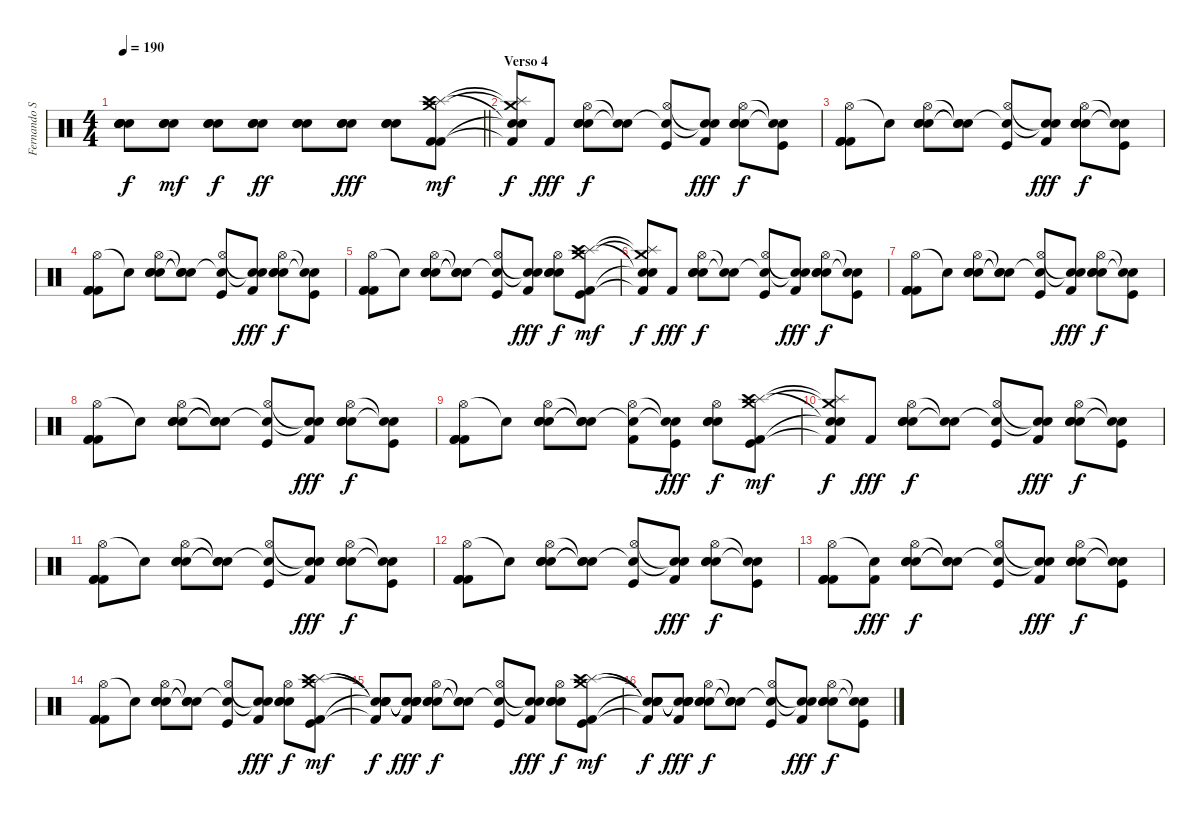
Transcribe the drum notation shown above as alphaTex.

\track ("Fernando Scarcella" "Fernando S") {instrument percussion}
\staff {score}
\articulation defaults
\ts (4 4)
\tempo 190
\clef neutral
\barLineRight lightlight
\ks c
("Snare (hit)"{t} "Snare (hit)"{t} "Snare (hit)"{t} "Snare (hit)"{t} "Snare (hit)"{t}).8{dy f} ("Electric Snare (hit)" "Electric Snare (hit)" "Electric Snare (hit)").8{dy mf} ("Electric Snare (hit)" "Electric Snare (hit)" "Electric Snare (hit)").8{dy f} ("Electric Snare (hit)" "Electric Snare (hit)" "Electric Snare (hit)").8{dy ff} ("Electric Snare (hit)" "Electric Snare (hit)" "Electric Snare (hit)").8 ("Electric Snare (hit)" "Electric Snare (hit)" "Electric Snare (hit)").8{dy fff} ("Electric Snare (hit)" "Electric Snare (hit)" "Electric Snare (hit)").8 ("Crash medium (hit)" "Splash (hit)" "Crash high (hit)" "Kick (hit) 2" "Kick (hit) 2").8{dy mf} |
\section ("" "Verso 4")
("Crash medium (hit)"{t} "Splash (hit)"{t} "Snare (hit)"{t} "Snare (hit)"{t} "Kick (hit) 2"{t}).8{dy f} "Kick (hit) 2".8{dy fff} ("Hi-Hat (open)" "Electric Snare (hit)" "Electric Snare (hit)" "Electric Snare (hit)").8{dy f} ("Snare (hit)"{t} "Snare (hit)"{t}).8 ("Hi-Hat (open)" "Snare (hit)"{t} "Kick (hit)").8 ("Snare (hit)"{t} "Snare (hit)"{t} "Kick (hit) 2").8{dy fff} ("Hi-Hat (open)" "Electric Snare (hit)" "Electric Snare (hit)" "Electric Snare (hit)").8{dy f} ("Snare (hit)"{t} "Snare (hit)"{t} "Kick (hit)").8 |
("Hi-Hat (open)" "Kick (hit) 2" "Kick (hit) 2" "Kick (hit) 2").8 "Snare (hit)"{t}.8 ("Hi-Hat (open)" "Electric Snare (hit)" "Electric Snare (hit)" "Electric Snare (hit)").8 ("Snare (hit)"{t} "Snare (hit)"{t} "Snare (hit)"{t}).8 ("Hi-Hat (open)" "Snare (hit)"{t} "Kick (hit)").8 ("Snare (hit)"{t} "Snare (hit)"{t} "Kick (hit) 2").8{dy fff} ("Hi-Hat (open)" "Electric Snare (hit)" "Electric Snare (hit)" "Electric Snare (hit)").8{dy f} ("Snare (hit)"{t} "Snare (hit)"{t} "Kick (hit)").8 |
("Hi-Hat (open)" "Kick (hit) 2" "Kick (hit) 2" "Kick (hit) 2").8 "Snare (hit)"{t}.8 ("Hi-Hat (open)" "Electric Snare (hit)" "Electric Snare (hit)" "Electric Snare (hit)").8 ("Snare (hit)"{t} "Snare (hit)"{t} "Snare (hit)"{t}).8 ("Hi-Hat (open)" "Snare (hit)"{t} "Kick (hit)").8 ("Snare (hit)"{t} "Snare (hit)"{t} "Kick (hit) 2").8{dy fff} ("Hi-Hat (open)" "Electric Snare (hit)" "Electric Snare (hit)" "Electric Snare (hit)").8{dy f} ("Snare (hit)"{t} "Snare (hit)"{t} "Kick (hit)").8 |
("Hi-Hat (open)" "Kick (hit) 2" "Kick (hit) 2" "Kick (hit) 2").8 "Snare (hit)"{t}.8 ("Hi-Hat (open)" "Electric Snare (hit)" "Electric Snare (hit)" "Electric Snare (hit)").8 ("Snare (hit)"{t} "Snare (hit)"{t} "Snare (hit)"{t}).8 ("Hi-Hat (open)" "Snare (hit)"{t} "Kick (hit)").8 ("Snare (hit)"{t} "Snare (hit)"{t} "Kick (hit) 2").8{dy fff} ("Hi-Hat (open)" "Electric Snare (hit)" "Electric Snare (hit)" "Electric Snare (hit)").8{dy f} ("Crash medium (hit)" "Splash (hit)" "Crash high (hit)" "Kick (hit) 2" "Kick (hit)").8{dy mf} |
("Crash medium (hit)"{t} "Splash (hit)"{t} "Snare (hit)"{t} "Snare (hit)"{t} "Kick (hit) 2"{t}).8{dy f} "Kick (hit) 2".8{dy fff} ("Hi-Hat (open)" "Electric Snare (hit)" "Electric Snare (hit)" "Electric Snare (hit)").8{dy f} ("Snare (hit)"{t} "Snare (hit)"{t}).8 ("Hi-Hat (open)" "Snare (hit)"{t} "Kick (hit)").8 ("Snare (hit)"{t} "Snare (hit)"{t} "Kick (hit) 2").8{dy fff} ("Hi-Hat (open)" "Electric Snare (hit)" "Electric Snare (hit)" "Electric Snare (hit)").8{dy f} ("Snare (hit)"{t} "Snare (hit)"{t} "Kick (hit)").8 |
("Hi-Hat (open)" "Kick (hit) 2" "Kick (hit) 2" "Kick (hit) 2").8 "Snare (hit)"{t}.8 ("Hi-Hat (open)" "Electric Snare (hit)" "Electric Snare (hit)" "Electric Snare (hit)").8 ("Snare (hit)"{t} "Snare (hit)"{t} "Snare (hit)"{t}).8 ("Hi-Hat (open)" "Snare (hit)"{t} "Kick (hit)").8 ("Snare (hit)"{t} "Snare (hit)"{t} "Kick (hit) 2").8{dy fff} ("Hi-Hat (open)" "Electric Snare (hit)" "Electric Snare (hit)" "Electric Snare (hit)").8{dy f} ("Snare (hit)"{t} "Snare (hit)"{t} "Kick (hit)").8 |
("Hi-Hat (open)" "Kick (hit) 2" "Kick (hit) 2" "Kick (hit) 2").8 "Snare (hit)"{t}.8 ("Hi-Hat (open)" "Electric Snare (hit)" "Electric Snare (hit)" "Electric Snare (hit)").8 ("Snare (hit)"{t} "Snare (hit)"{t} "Snare (hit)"{t}).8 ("Hi-Hat (open)" "Snare (hit)"{t} "Kick (hit)").8 ("Snare (hit)"{t} "Snare (hit)"{t} "Kick (hit) 2").8{dy fff} ("Hi-Hat (open)" "Electric Snare (hit)" "Electric Snare (hit)" "Electric Snare (hit)").8{dy f} ("Snare (hit)"{t} "Snare (hit)"{t} "Kick (hit)").8 |
("Hi-Hat (open)" "Kick (hit) 2" "Kick (hit) 2" "Kick (hit) 2").8 "Snare (hit)"{t}.8 ("Hi-Hat (open)" "Electric Snare (hit)" "Electric Snare (hit)" "Electric Snare (hit)").8 ("Snare (hit)"{t} "Snare (hit)"{t} "Snare (hit)"{t}).8 ("Hi-Hat (open)" "Snare (hit)"{t} "Kick (hit) 2").8 ("Snare (hit)"{t} "Snare (hit)"{t} "Kick (hit)").8{dy fff} ("Hi-Hat (open)" "Electric Snare (hit)" "Electric Snare (hit)" "Electric Snare (hit)").8{dy f} ("Crash medium (hit)" "Splash (hit)" "Crash high (hit)" "Kick (hit) 2" "Kick (hit)").8{dy mf} |
("Crash medium (hit)"{t} "Splash (hit)"{t} "Snare (hit)"{t} "Snare (hit)"{t} "Kick (hit) 2"{t}).8{dy f} "Kick (hit) 2".8{dy fff} ("Hi-Hat (open)" "Electric Snare (hit)" "Electric Snare (hit)" "Electric Snare (hit)").8{dy f} ("Snare (hit)"{t} "Snare (hit)"{t}).8 ("Hi-Hat (open)" "Snare (hit)"{t} "Kick (hit)").8 ("Snare (hit)"{t} "Snare (hit)"{t} "Kick (hit) 2").8{dy fff} ("Hi-Hat (open)" "Electric Snare (hit)" "Electric Snare (hit)" "Electric Snare (hit)").8{dy f} ("Snare (hit)"{t} "Snare (hit)"{t} "Kick (hit)").8 |
("Hi-Hat (open)" "Kick (hit) 2" "Kick (hit) 2" "Kick (hit) 2").8 "Snare (hit)"{t}.8 ("Hi-Hat (open)" "Electric Snare (hit)" "Electric Snare (hit)" "Electric Snare (hit)").8 ("Snare (hit)"{t} "Snare (hit)"{t} "Snare (hit)"{t}).8 ("Hi-Hat (open)" "Snare (hit)"{t} "Kick (hit)").8 ("Snare (hit)"{t} "Snare (hit)"{t} "Kick (hit) 2").8{dy fff} ("Hi-Hat (open)" "Electric Snare (hit)" "Electric Snare (hit)" "Electric Snare (hit)").8{dy f} ("Snare (hit)"{t} "Snare (hit)"{t} "Kick (hit)").8 |
("Hi-Hat (open)" "Kick (hit) 2" "Kick (hit) 2" "Kick (hit) 2").8 "Snare (hit)"{t}.8 ("Hi-Hat (open)" "Electric Snare (hit)" "Electric Snare (hit)" "Electric Snare (hit)").8 ("Snare (hit)"{t} "Snare (hit)"{t} "Snare (hit)"{t}).8 ("Hi-Hat (open)" "Snare (hit)"{t} "Kick (hit)").8 ("Snare (hit)"{t} "Snare (hit)"{t} "Kick (hit) 2").8{dy fff} ("Hi-Hat (open)" "Electric Snare (hit)" "Electric Snare (hit)" "Electric Snare (hit)").8{dy f} ("Snare (hit)"{t} "Snare (hit)"{t} "Kick (hit)").8 |
("Hi-Hat (open)" "Kick (hit) 2" "Kick (hit) 2" "Kick (hit) 2").8 ("Snare (hit)"{t} "Kick (hit) 2").8{dy fff} ("Hi-Hat (open)" "Electric Snare (hit)" "Electric Snare (hit)" "Electric Snare (hit)").8{dy f} ("Snare (hit)"{t} "Snare (hit)"{t} "Snare (hit)"{t}).8 ("Hi-Hat (open)" "Snare (hit)"{t} "Kick (hit)").8 ("Snare (hit)"{t} "Snare (hit)"{t} "Kick (hit) 2").8{dy fff} ("Hi-Hat (open)" "Electric Snare (hit)" "Electric Snare (hit)" "Electric Snare (hit)").8{dy f} ("Snare (hit)"{t} "Snare (hit)"{t} "Kick (hit)").8 |
("Hi-Hat (open)" "Kick (hit) 2" "Kick (hit) 2" "Kick (hit) 2").8 "Snare (hit)"{t}.8 ("Hi-Hat (open)" "Electric Snare (hit)" "Electric Snare (hit)" "Electric Snare (hit)").8 ("Snare (hit)"{t} "Snare (hit)"{t} "Snare (hit)"{t}).8 ("Hi-Hat (open)" "Snare (hit)"{t} "Kick (hit)").8 ("Snare (hit)"{t} "Snare (hit)"{t} "Kick (hit) 2").8{dy fff} ("Hi-Hat (open)" "Electric Snare (hit)" "Electric Snare (hit)" "Electric Snare (hit)").8{dy f} ("Crash medium (hit)" "Splash (hit)" "Crash high (hit)" "Kick (hit) 2" "Kick (hit)").8{dy mf} |
("Snare (hit)"{t} "Snare (hit)"{t} "Snare (hit)"{t} "Snare (hit)"{t} "Kick (hit) 2"{t}).8{dy f} ("Snare (hit)"{t} "Snare (hit)"{t} "Snare (hit)"{t} "Snare (hit)"{t} "Kick (hit) 2").8{dy fff} ("Hi-Hat (open)" "Electric Snare (hit)" "Electric Snare (hit)" "Electric Snare (hit)").8{dy f} ("Snare (hit)"{t} "Snare (hit)"{t} "Snare (hit)"{t}).8 ("Hi-Hat (open)" "Snare (hit)"{t} "Kick (hit)").8 ("Snare (hit)"{t} "Snare (hit)"{t} "Kick (hit) 2").8{dy fff} ("Hi-Hat (open)" "Electric Snare (hit)" "Electric Snare (hit)" "Electric Snare (hit)").8{dy f} ("Crash medium (hit)" "Splash (hit)" "Crash high (hit)" "Kick (hit) 2" "Kick (hit)").8{dy mf} |
("Snare (hit)"{t} "Snare (hit)"{t} "Snare (hit)"{t} "Snare (hit)"{t} "Kick (hit) 2"{t}).8{dy f} ("Snare (hit)"{t} "Snare (hit)"{t} "Snare (hit)"{t} "Snare (hit)"{t} "Kick (hit) 2").8{dy fff} ("Hi-Hat (open)" "Electric Snare (hit)" "Electric Snare (hit)" "Electric Snare (hit)").8{dy f} ("Snare (hit)"{t} "Snare (hit)"{t} "Snare (hit)"{t}).8 ("Hi-Hat (open)" "Snare (hit)"{t} "Kick (hit)").8 ("Snare (hit)"{t} "Snare (hit)"{t} "Kick (hit) 2").8{dy fff} ("Hi-Hat (open)" "Electric Snare (hit)" "Electric Snare (hit)" "Electric Snare (hit)").8{dy f} ("Snare (hit)"{t} "Snare (hit)"{t} "Kick (hit)").8
